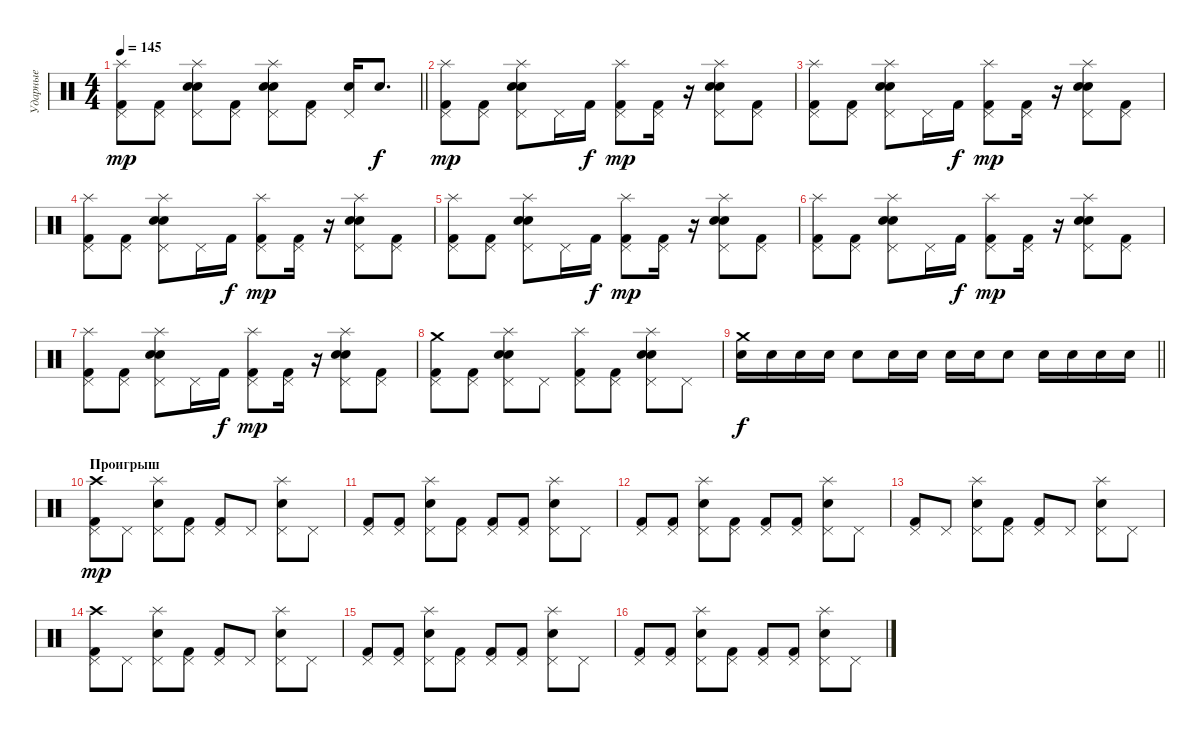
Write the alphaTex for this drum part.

\track ("Ударные" "Ударные") {instrument percussion}
\staff {score}
\articulation defaults
\ts (4 4)
\tempo 145
\clef neutral
\barLineRight lightlight
\ks c
("Splash (hit)" "Pedal Hi-Hat (hit)" "Kick (hit) 2").8{dy mp} ("Pedal Hi-Hat (hit)" "Kick (hit) 2").8 ("Splash (hit)" "Pedal Hi-Hat (hit)" "Electric Snare (hit)" "Snare (hit) 2").8 ("Pedal Hi-Hat (hit)" "Kick (hit) 2").8 ("Splash (hit)" "Pedal Hi-Hat (hit)" "Electric Snare (hit)" "Snare (hit) 2").8 ("Pedal Hi-Hat (hit)" "Kick (hit) 2").8 ("Pedal Hi-Hat (hit)" "Electric Snare (hit)").16 "Electric Snare (hit)".8{d dy f} |
("Splash (hit)" "Pedal Hi-Hat (hit)" "Kick (hit) 2").8{dy mp} ("Pedal Hi-Hat (hit)" "Kick (hit) 2").8 ("Splash (hit)" "Pedal Hi-Hat (hit)" "Electric Snare (hit)" "Snare (hit) 2").8 "Pedal Hi-Hat (hit)".16 "Kick (hit) 2".16{dy f} ("Splash (hit)" "Pedal Hi-Hat (hit)" "Kick (hit) 2").8{dy mp} ("Pedal Hi-Hat (hit)" "Kick (hit) 2").16 r.16 ("Splash (hit)" "Pedal Hi-Hat (hit)" "Electric Snare (hit)" "Snare (hit) 2").8 ("Pedal Hi-Hat (hit)" "Kick (hit) 2").8 |
("Splash (hit)" "Pedal Hi-Hat (hit)" "Kick (hit) 2").8 ("Pedal Hi-Hat (hit)" "Kick (hit) 2").8 ("Splash (hit)" "Pedal Hi-Hat (hit)" "Electric Snare (hit)" "Snare (hit) 2").8 "Pedal Hi-Hat (hit)".16 "Kick (hit) 2".16{dy f} ("Splash (hit)" "Pedal Hi-Hat (hit)" "Kick (hit) 2").8{dy mp} ("Pedal Hi-Hat (hit)" "Kick (hit) 2").16 r.16 ("Splash (hit)" "Pedal Hi-Hat (hit)" "Electric Snare (hit)" "Snare (hit) 2").8 ("Pedal Hi-Hat (hit)" "Kick (hit) 2").8 |
("Splash (hit)" "Pedal Hi-Hat (hit)" "Kick (hit) 2").8 ("Pedal Hi-Hat (hit)" "Kick (hit) 2").8 ("Splash (hit)" "Pedal Hi-Hat (hit)" "Electric Snare (hit)" "Snare (hit) 2").8 "Pedal Hi-Hat (hit)".16 "Kick (hit) 2".16{dy f} ("Splash (hit)" "Pedal Hi-Hat (hit)" "Kick (hit) 2").8{dy mp} ("Pedal Hi-Hat (hit)" "Kick (hit) 2").16 r.16 ("Splash (hit)" "Pedal Hi-Hat (hit)" "Electric Snare (hit)" "Snare (hit) 2").8 ("Pedal Hi-Hat (hit)" "Kick (hit) 2").8 |
("Splash (hit)" "Pedal Hi-Hat (hit)" "Kick (hit) 2").8 ("Pedal Hi-Hat (hit)" "Kick (hit) 2").8 ("Splash (hit)" "Pedal Hi-Hat (hit)" "Electric Snare (hit)" "Snare (hit) 2").8 "Pedal Hi-Hat (hit)".16 "Kick (hit) 2".16{dy f} ("Splash (hit)" "Pedal Hi-Hat (hit)" "Kick (hit) 2").8{dy mp} ("Pedal Hi-Hat (hit)" "Kick (hit) 2").16 r.16 ("Splash (hit)" "Pedal Hi-Hat (hit)" "Electric Snare (hit)" "Snare (hit) 2").8 ("Pedal Hi-Hat (hit)" "Kick (hit) 2").8 |
("Splash (hit)" "Pedal Hi-Hat (hit)" "Kick (hit) 2").8 ("Pedal Hi-Hat (hit)" "Kick (hit) 2").8 ("Splash (hit)" "Pedal Hi-Hat (hit)" "Electric Snare (hit)" "Snare (hit) 2").8 "Pedal Hi-Hat (hit)".16 "Kick (hit) 2".16{dy f} ("Splash (hit)" "Pedal Hi-Hat (hit)" "Kick (hit) 2").8{dy mp} ("Pedal Hi-Hat (hit)" "Kick (hit) 2").16 r.16 ("Splash (hit)" "Pedal Hi-Hat (hit)" "Electric Snare (hit)" "Snare (hit) 2").8 ("Pedal Hi-Hat (hit)" "Kick (hit) 2").8 |
("Splash (hit)" "Pedal Hi-Hat (hit)" "Kick (hit) 2").8 ("Pedal Hi-Hat (hit)" "Kick (hit) 2").8 ("Splash (hit)" "Pedal Hi-Hat (hit)" "Electric Snare (hit)" "Snare (hit) 2").8 "Pedal Hi-Hat (hit)".16 "Kick (hit) 2".16{dy f} ("Splash (hit)" "Pedal Hi-Hat (hit)" "Kick (hit) 2").8{dy mp} ("Pedal Hi-Hat (hit)" "Kick (hit) 2").16 r.16 ("Splash (hit)" "Pedal Hi-Hat (hit)" "Electric Snare (hit)" "Snare (hit) 2").8 ("Pedal Hi-Hat (hit)" "Kick (hit) 2").8 |
("Crash medium (hit)" "Pedal Hi-Hat (hit)" "Kick (hit) 2").8 ("Pedal Hi-Hat (hit)" "Kick (hit) 2").8 ("Splash (hit)" "Pedal Hi-Hat (hit)" "Electric Snare (hit)" "Snare (hit) 2").8 "Pedal Hi-Hat (hit)".8 ("Splash (hit)" "Pedal Hi-Hat (hit)" "Kick (hit) 2").8 ("Pedal Hi-Hat (hit)" "Kick (hit) 2").8 ("Splash (hit)" "Pedal Hi-Hat (hit)" "Electric Snare (hit)" "Snare (hit) 2").8 "Pedal Hi-Hat (hit)".8 |
\barLineRight lightlight
("Crash medium (hit)" "Electric Snare (hit)").16{dy f} "Electric Snare (hit)".16 "Electric Snare (hit)".16 "Electric Snare (hit)".16 "Electric Snare (hit)".8 "Electric Snare (hit)".16 "Electric Snare (hit)".16 "Electric Snare (hit)".16 "Electric Snare (hit)".16 "Electric Snare (hit)".8 "Electric Snare (hit)".16 "Electric Snare (hit)".16 "Electric Snare (hit)".16 "Electric Snare (hit)".16 |
\section ("" "Проигрыш")
("Crash high (hit)" "Pedal Hi-Hat (hit)" "Kick (hit) 2").8{dy mp} "Pedal Hi-Hat (hit)".8 ("Splash (hit)" "Pedal Hi-Hat (hit)" "Electric Snare (hit)").8 ("Pedal Hi-Hat (hit)" "Kick (hit) 2").8 ("Pedal Hi-Hat (hit)" "Kick (hit) 2").8 "Pedal Hi-Hat (hit)".8 ("Splash (hit)" "Pedal Hi-Hat (hit)" "Electric Snare (hit)").8 "Pedal Hi-Hat (hit)".8 |
("Pedal Hi-Hat (hit)" "Kick (hit) 2").8 ("Pedal Hi-Hat (hit)" "Kick (hit) 2").8 ("Splash (hit)" "Pedal Hi-Hat (hit)" "Electric Snare (hit)").8 ("Pedal Hi-Hat (hit)" "Kick (hit) 2").8 ("Pedal Hi-Hat (hit)" "Kick (hit) 2").8 ("Pedal Hi-Hat (hit)" "Kick (hit) 2").8 ("Splash (hit)" "Pedal Hi-Hat (hit)" "Electric Snare (hit)").8 "Pedal Hi-Hat (hit)".8 |
("Pedal Hi-Hat (hit)" "Kick (hit) 2").8 ("Pedal Hi-Hat (hit)" "Kick (hit) 2").8 ("Splash (hit)" "Pedal Hi-Hat (hit)" "Electric Snare (hit)").8 ("Pedal Hi-Hat (hit)" "Kick (hit) 2").8 ("Pedal Hi-Hat (hit)" "Kick (hit) 2").8 ("Pedal Hi-Hat (hit)" "Kick (hit) 2").8 ("Splash (hit)" "Pedal Hi-Hat (hit)" "Electric Snare (hit)").8 "Pedal Hi-Hat (hit)".8 |
("Pedal Hi-Hat (hit)" "Kick (hit) 2").8 "Pedal Hi-Hat (hit)".8 ("Splash (hit)" "Pedal Hi-Hat (hit)" "Electric Snare (hit)").8 ("Pedal Hi-Hat (hit)" "Kick (hit) 2").8 ("Pedal Hi-Hat (hit)" "Kick (hit) 2").8 "Pedal Hi-Hat (hit)".8 ("Splash (hit)" "Pedal Hi-Hat (hit)" "Electric Snare (hit)").8 "Pedal Hi-Hat (hit)".8 |
("Crash high (hit)" "Pedal Hi-Hat (hit)" "Kick (hit) 2").8 "Pedal Hi-Hat (hit)".8 ("Splash (hit)" "Pedal Hi-Hat (hit)" "Electric Snare (hit)").8 ("Pedal Hi-Hat (hit)" "Kick (hit) 2").8 ("Pedal Hi-Hat (hit)" "Kick (hit) 2").8 "Pedal Hi-Hat (hit)".8 ("Splash (hit)" "Pedal Hi-Hat (hit)" "Electric Snare (hit)").8 "Pedal Hi-Hat (hit)".8 |
("Pedal Hi-Hat (hit)" "Kick (hit) 2").8 ("Pedal Hi-Hat (hit)" "Kick (hit) 2").8 ("Splash (hit)" "Pedal Hi-Hat (hit)" "Electric Snare (hit)").8 ("Pedal Hi-Hat (hit)" "Kick (hit) 2").8 ("Pedal Hi-Hat (hit)" "Kick (hit) 2").8 ("Pedal Hi-Hat (hit)" "Kick (hit) 2").8 ("Splash (hit)" "Pedal Hi-Hat (hit)" "Electric Snare (hit)").8 "Pedal Hi-Hat (hit)".8 |
("Pedal Hi-Hat (hit)" "Kick (hit) 2").8 ("Pedal Hi-Hat (hit)" "Kick (hit) 2").8 ("Splash (hit)" "Pedal Hi-Hat (hit)" "Electric Snare (hit)").8 ("Pedal Hi-Hat (hit)" "Kick (hit) 2").8 ("Pedal Hi-Hat (hit)" "Kick (hit) 2").8 ("Pedal Hi-Hat (hit)" "Kick (hit) 2").8 ("Splash (hit)" "Pedal Hi-Hat (hit)" "Electric Snare (hit)").8 "Pedal Hi-Hat (hit)".8
